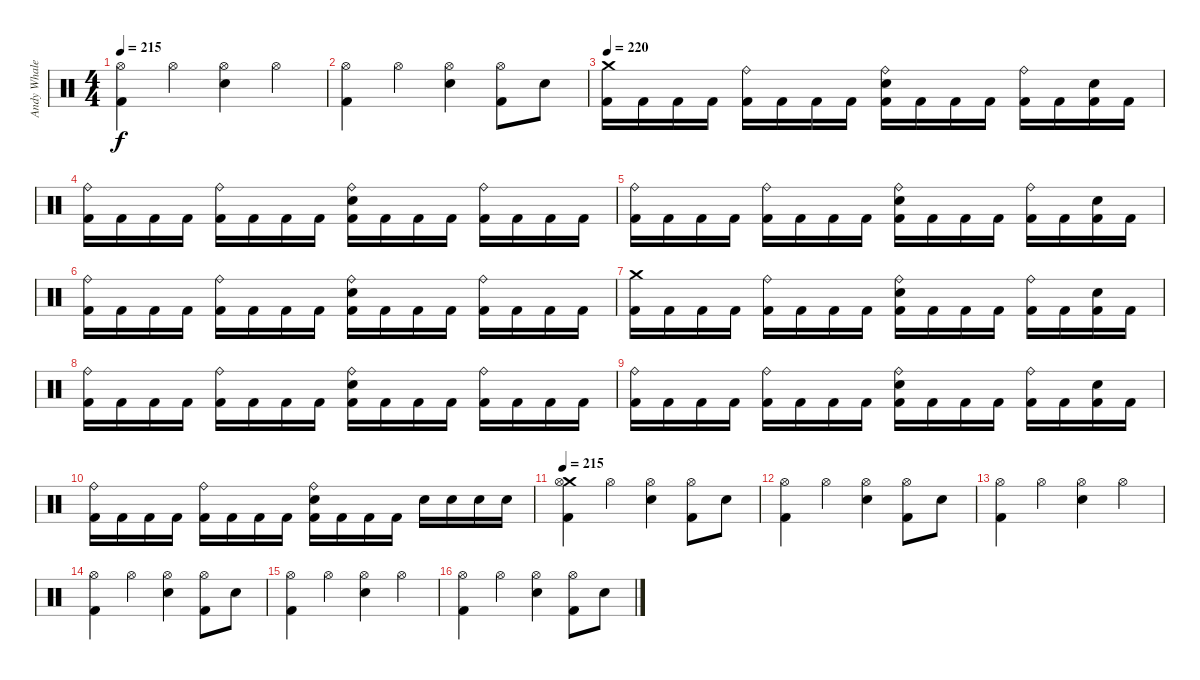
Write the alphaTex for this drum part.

\track ("Andy Whale" "Andy Whale") {instrument percussion}
\staff {score}
\articulation defaults
\ts (4 4)
\tempo 215
\clef neutral
\ks c
("Hi-Hat (open)" "Kick (hit) 2").4{dy f} "Hi-Hat (open)".4 ("Hi-Hat (open)" "Snare (hit) 2").4 "Hi-Hat (open)".4 |
("Hi-Hat (open)" "Kick (hit) 2").4 "Hi-Hat (open)".4 ("Hi-Hat (open)" "Snare (hit) 2").4 ("Hi-Hat (open)" "Kick (hit) 2").8 "Snare (hit) 2".8 |
\tempo 220
("Crash medium (hit)" "Kick (hit) 2").16 "Kick (hit) 2".16 "Kick (hit) 2".16 "Kick (hit) 2".16 ("Ride (bell)" "Kick (hit) 2").16 "Kick (hit) 2".16 "Kick (hit) 2".16 "Kick (hit) 2".16 ("Ride (bell)" "Snare (hit) 2" "Kick (hit) 2").16 "Kick (hit) 2".16 "Kick (hit) 2".16 "Kick (hit) 2".16 ("Ride (bell)" "Kick (hit) 2").16 "Kick (hit) 2".16 ("Snare (hit) 2" "Kick (hit) 2").16 "Kick (hit) 2".16 |
("Ride (bell)" "Kick (hit) 2").16 "Kick (hit) 2".16 "Kick (hit) 2".16 "Kick (hit) 2".16 ("Ride (bell)" "Kick (hit) 2").16 "Kick (hit) 2".16 "Kick (hit) 2".16 "Kick (hit) 2".16 ("Ride (bell)" "Snare (hit) 2" "Kick (hit) 2").16 "Kick (hit) 2".16 "Kick (hit) 2".16 "Kick (hit) 2".16 ("Ride (bell)" "Kick (hit) 2").16 "Kick (hit) 2".16 "Kick (hit) 2".16 "Kick (hit) 2".16 |
("Ride (bell)" "Kick (hit) 2").16 "Kick (hit) 2".16 "Kick (hit) 2".16 "Kick (hit) 2".16 ("Ride (bell)" "Kick (hit) 2").16 "Kick (hit) 2".16 "Kick (hit) 2".16 "Kick (hit) 2".16 ("Ride (bell)" "Snare (hit) 2" "Kick (hit) 2").16 "Kick (hit) 2".16 "Kick (hit) 2".16 "Kick (hit) 2".16 ("Ride (bell)" "Kick (hit) 2").16 "Kick (hit) 2".16 ("Snare (hit) 2" "Kick (hit) 2").16 "Kick (hit) 2".16 |
("Ride (bell)" "Kick (hit) 2").16 "Kick (hit) 2".16 "Kick (hit) 2".16 "Kick (hit) 2".16 ("Ride (bell)" "Kick (hit) 2").16 "Kick (hit) 2".16 "Kick (hit) 2".16 "Kick (hit) 2".16 ("Ride (bell)" "Snare (hit) 2" "Kick (hit) 2").16 "Kick (hit) 2".16 "Kick (hit) 2".16 "Kick (hit) 2".16 ("Ride (bell)" "Kick (hit) 2").16 "Kick (hit) 2".16 "Kick (hit) 2".16 "Kick (hit) 2".16 |
("Crash medium (hit)" "Kick (hit) 2").16 "Kick (hit) 2".16 "Kick (hit) 2".16 "Kick (hit) 2".16 ("Ride (bell)" "Kick (hit) 2").16 "Kick (hit) 2".16 "Kick (hit) 2".16 "Kick (hit) 2".16 ("Ride (bell)" "Snare (hit) 2" "Kick (hit) 2").16 "Kick (hit) 2".16 "Kick (hit) 2".16 "Kick (hit) 2".16 ("Ride (bell)" "Kick (hit) 2").16 "Kick (hit) 2".16 ("Snare (hit) 2" "Kick (hit) 2").16 "Kick (hit) 2".16 |
("Ride (bell)" "Kick (hit) 2").16 "Kick (hit) 2".16 "Kick (hit) 2".16 "Kick (hit) 2".16 ("Ride (bell)" "Kick (hit) 2").16 "Kick (hit) 2".16 "Kick (hit) 2".16 "Kick (hit) 2".16 ("Ride (bell)" "Snare (hit) 2" "Kick (hit) 2").16 "Kick (hit) 2".16 "Kick (hit) 2".16 "Kick (hit) 2".16 ("Ride (bell)" "Kick (hit) 2").16 "Kick (hit) 2".16 "Kick (hit) 2".16 "Kick (hit) 2".16 |
("Ride (bell)" "Kick (hit) 2").16 "Kick (hit) 2".16 "Kick (hit) 2".16 "Kick (hit) 2".16 ("Ride (bell)" "Kick (hit) 2").16 "Kick (hit) 2".16 "Kick (hit) 2".16 "Kick (hit) 2".16 ("Ride (bell)" "Snare (hit) 2" "Kick (hit) 2").16 "Kick (hit) 2".16 "Kick (hit) 2".16 "Kick (hit) 2".16 ("Ride (bell)" "Kick (hit) 2").16 "Kick (hit) 2".16 ("Snare (hit) 2" "Kick (hit) 2").16 "Kick (hit) 2".16 |
("Ride (bell)" "Kick (hit) 2").16 "Kick (hit) 2".16 "Kick (hit) 2".16 "Kick (hit) 2".16 ("Ride (bell)" "Kick (hit) 2").16 "Kick (hit) 2".16 "Kick (hit) 2".16 "Kick (hit) 2".16 ("Ride (bell)" "Snare (hit) 2" "Kick (hit) 2").16 "Kick (hit) 2".16 "Kick (hit) 2".16 "Kick (hit) 2".16 "Snare (hit) 2".16 "Snare (hit) 2".16 "Snare (hit) 2".16 "Snare (hit) 2".16 |
\tempo 215
("Crash medium (hit)" "Hi-Hat (open)" "Kick (hit) 2").4 "Hi-Hat (open)".4 ("Hi-Hat (open)" "Snare (hit) 2").4 ("Hi-Hat (open)" "Kick (hit) 2").8 "Snare (hit) 2".8 |
("Hi-Hat (open)" "Kick (hit) 2").4 "Hi-Hat (open)".4 ("Hi-Hat (open)" "Snare (hit) 2").4 ("Hi-Hat (open)" "Kick (hit) 2").8 "Snare (hit) 2".8 |
("Hi-Hat (open)" "Kick (hit) 2").4 "Hi-Hat (open)".4 ("Hi-Hat (open)" "Snare (hit) 2").4 "Hi-Hat (open)".4 |
("Hi-Hat (open)" "Kick (hit) 2").4 "Hi-Hat (open)".4 ("Hi-Hat (open)" "Snare (hit) 2").4 ("Hi-Hat (open)" "Kick (hit) 2").8 "Snare (hit) 2".8 |
("Hi-Hat (open)" "Kick (hit) 2").4 "Hi-Hat (open)".4 ("Hi-Hat (open)" "Snare (hit) 2").4 "Hi-Hat (open)".4 |
("Hi-Hat (open)" "Kick (hit) 2").4 "Hi-Hat (open)".4 ("Hi-Hat (open)" "Snare (hit) 2").4 ("Hi-Hat (open)" "Kick (hit) 2").8 "Snare (hit) 2".8
